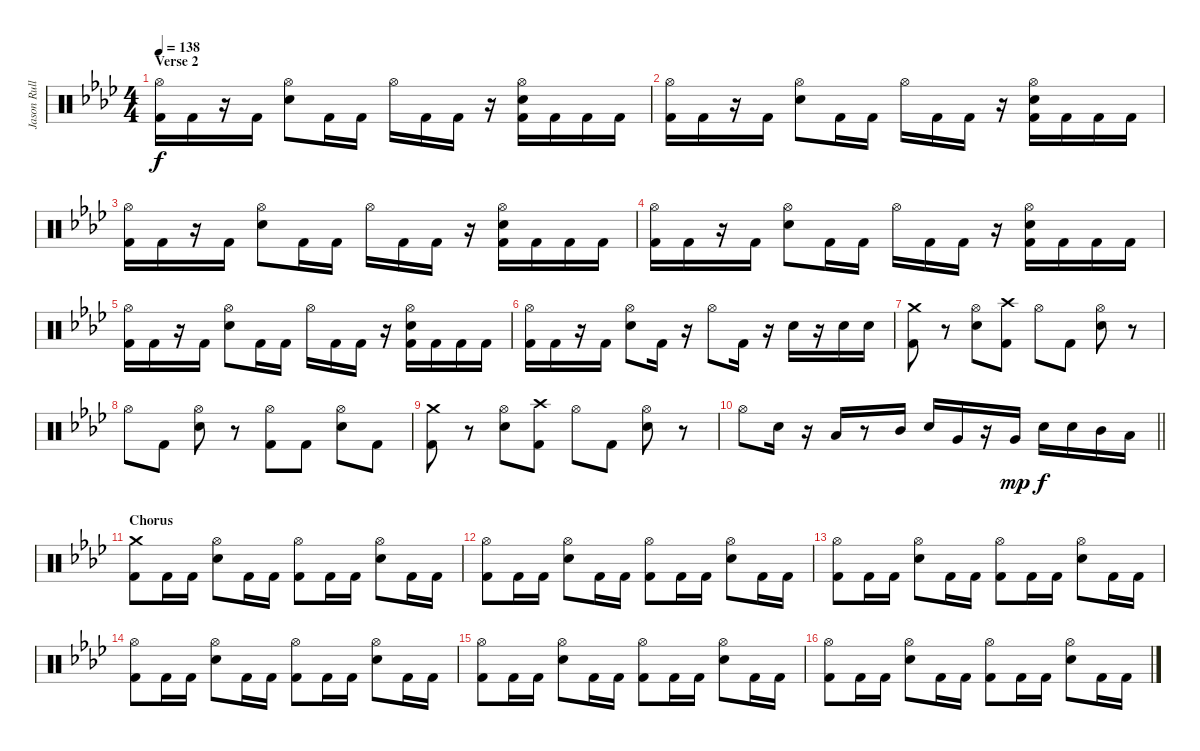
\track ("Jason Rullo (drums)" "Jason Rull") {instrument percussion}
\staff {score}
\articulation defaults
\ts (4 4)
\section ("" "Verse 2")
\tempo 138
\clef neutral
\ks ab
("Hi-Hat (open)" "Kick (hit) 2").16{dy f} "Kick (hit) 2".16 r.16 "Kick (hit) 2".16 ("Hi-Hat (open)" "Electric Snare (hit)").8 "Kick (hit) 2".16 "Kick (hit) 2".16 "Hi-Hat (open)".16 "Kick (hit) 2".16 "Kick (hit) 2".16 r.16 ("Hi-Hat (open)" "Kick (hit) 2" "Electric Snare (hit)").16 "Kick (hit) 2".16 "Kick (hit) 2".16 "Kick (hit) 2".16 |
("Hi-Hat (open)" "Kick (hit) 2").16 "Kick (hit) 2".16 r.16 "Kick (hit) 2".16 ("Hi-Hat (open)" "Electric Snare (hit)").8 "Kick (hit) 2".16 "Kick (hit) 2".16 "Hi-Hat (open)".16 "Kick (hit) 2".16 "Kick (hit) 2".16 r.16 ("Hi-Hat (open)" "Kick (hit) 2" "Electric Snare (hit)").16 "Kick (hit) 2".16 "Kick (hit) 2".16 "Kick (hit) 2".16 |
("Hi-Hat (open)" "Kick (hit) 2").16 "Kick (hit) 2".16 r.16 "Kick (hit) 2".16 ("Hi-Hat (open)" "Electric Snare (hit)").8 "Kick (hit) 2".16 "Kick (hit) 2".16 "Hi-Hat (open)".16 "Kick (hit) 2".16 "Kick (hit) 2".16 r.16 ("Hi-Hat (open)" "Kick (hit) 2" "Electric Snare (hit)").16 "Kick (hit) 2".16 "Kick (hit) 2".16 "Kick (hit) 2".16 |
("Hi-Hat (open)" "Kick (hit) 2").16 "Kick (hit) 2".16 r.16 "Kick (hit) 2".16 ("Hi-Hat (open)" "Electric Snare (hit)").8 "Kick (hit) 2".16 "Kick (hit) 2".16 "Hi-Hat (open)".16 "Kick (hit) 2".16 "Kick (hit) 2".16 r.16 ("Hi-Hat (open)" "Kick (hit) 2" "Electric Snare (hit)").16 "Kick (hit) 2".16 "Kick (hit) 2".16 "Kick (hit) 2".16 |
("Hi-Hat (open)" "Kick (hit) 2").16 "Kick (hit) 2".16 r.16 "Kick (hit) 2".16 ("Hi-Hat (open)" "Electric Snare (hit)").8 "Kick (hit) 2".16 "Kick (hit) 2".16 "Hi-Hat (open)".16 "Kick (hit) 2".16 "Kick (hit) 2".16 r.16 ("Hi-Hat (open)" "Kick (hit) 2" "Electric Snare (hit)").16 "Kick (hit) 2".16 "Kick (hit) 2".16 "Kick (hit) 2".16 |
("Hi-Hat (open)" "Kick (hit) 2").16 "Kick (hit) 2".16 r.16 "Kick (hit) 2".16 ("Hi-Hat (open)" "Electric Snare (hit)").8 "Kick (hit) 2".16 r.16 "Hi-Hat (open)".8 "Kick (hit) 2".16 r.16 "Electric Snare (hit)".16 r.16 "Electric Snare (hit)".16 "Electric Snare (hit)".16 |
\ks fminor
("Crash medium (hit)" "Kick (hit) 2").8 r.8 ("Electric Snare (hit)" "Hi-Hat (open)").8 ("Kick (hit) 2" "Crash high (hit)").8 "Hi-Hat (open)".8 "Kick (hit) 2".8 ("Hi-Hat (open)" "Electric Snare (hit)").8 r.8 |
"Hi-Hat (open)".8 "Kick (hit) 2".8 ("Hi-Hat (open)" "Electric Snare (hit)").8 r.8 ("Hi-Hat (open)" "Kick (hit) 2").8 "Kick (hit) 2".8 ("Hi-Hat (open)" "Electric Snare (hit)").8 "Kick (hit) 2".8 |
("Kick (hit) 2" "Crash medium (hit)").8 r.8 ("Electric Snare (hit)" "Hi-Hat (open)").8 ("Kick (hit) 2" "Crash high (hit)").8 "Hi-Hat (open)".8 "Kick (hit) 2".8 ("Hi-Hat (open)" "Electric Snare (hit)").8 r.8 |
\barLineRight lightlight "Hi-Hat (open)".8 "Electric Snare (hit)".16
r.16 "Low Tom (hit)".16 r.8 "Mid Tom (hit)".16 "Electric Snare (hit)".16 "Very Low Tom (hit)".16 r.16 "Very Low Tom (hit)".16{dy mp} "Electric Snare (hit)".16{dy f} "Electric Snare (hit)".16 "Mid Tom (hit)".16 "Low Tom (hit)".16 |
\section ("" "Chorus")
("Crash medium (hit)" "Kick (hit) 2").8 "Kick (hit) 2".16 "Kick (hit) 2".16 ("Hi-Hat (open)" "Electric Snare (hit)").8 "Kick (hit) 2".16 "Kick (hit) 2".16 ("Hi-Hat (open)" "Kick (hit) 2").8 "Kick (hit) 2".16 "Kick (hit) 2".16 ("Hi-Hat (open)" "Electric Snare (hit)").8 "Kick (hit) 2".16 "Kick (hit) 2".16 |
("Hi-Hat (open)" "Kick (hit) 2").8 "Kick (hit) 2".16 "Kick (hit) 2".16 ("Hi-Hat (open)" "Electric Snare (hit)").8 "Kick (hit) 2".16 "Kick (hit) 2".16 ("Hi-Hat (open)" "Kick (hit) 2").8 "Kick (hit) 2".16 "Kick (hit) 2".16 ("Hi-Hat (open)" "Electric Snare (hit)").8 "Kick (hit) 2".16 "Kick (hit) 2".16 |
("Hi-Hat (open)" "Kick (hit) 2").8 "Kick (hit) 2".16 "Kick (hit) 2".16 ("Hi-Hat (open)" "Electric Snare (hit)").8 "Kick (hit) 2".16 "Kick (hit) 2".16 ("Hi-Hat (open)" "Kick (hit) 2").8 "Kick (hit) 2".16 "Kick (hit) 2".16 ("Hi-Hat (open)" "Electric Snare (hit)").8 "Kick (hit) 2".16 "Kick (hit) 2".16 |
("Hi-Hat (open)" "Kick (hit) 2").8 "Kick (hit) 2".16 "Kick (hit) 2".16 ("Hi-Hat (open)" "Electric Snare (hit)").8 "Kick (hit) 2".16 "Kick (hit) 2".16 ("Hi-Hat (open)" "Kick (hit) 2").8 "Kick (hit) 2".16 "Kick (hit) 2".16 ("Hi-Hat (open)" "Electric Snare (hit)").8 "Kick (hit) 2".16 "Kick (hit) 2".16 |
("Hi-Hat (open)" "Kick (hit) 2").8 "Kick (hit) 2".16 "Kick (hit) 2".16 ("Hi-Hat (open)" "Electric Snare (hit)").8 "Kick (hit) 2".16 "Kick (hit) 2".16 ("Hi-Hat (open)" "Kick (hit) 2").8 "Kick (hit) 2".16 "Kick (hit) 2".16 ("Hi-Hat (open)" "Electric Snare (hit)").8 "Kick (hit) 2".16 "Kick (hit) 2".16 |
("Hi-Hat (open)" "Kick (hit) 2").8 "Kick (hit) 2".16 "Kick (hit) 2".16 ("Hi-Hat (open)" "Electric Snare (hit)").8 "Kick (hit) 2".16 "Kick (hit) 2".16 ("Hi-Hat (open)" "Kick (hit) 2").8 "Kick (hit) 2".16 "Kick (hit) 2".16 ("Hi-Hat (open)" "Electric Snare (hit)").8 "Kick (hit) 2".16 "Kick (hit) 2".16
